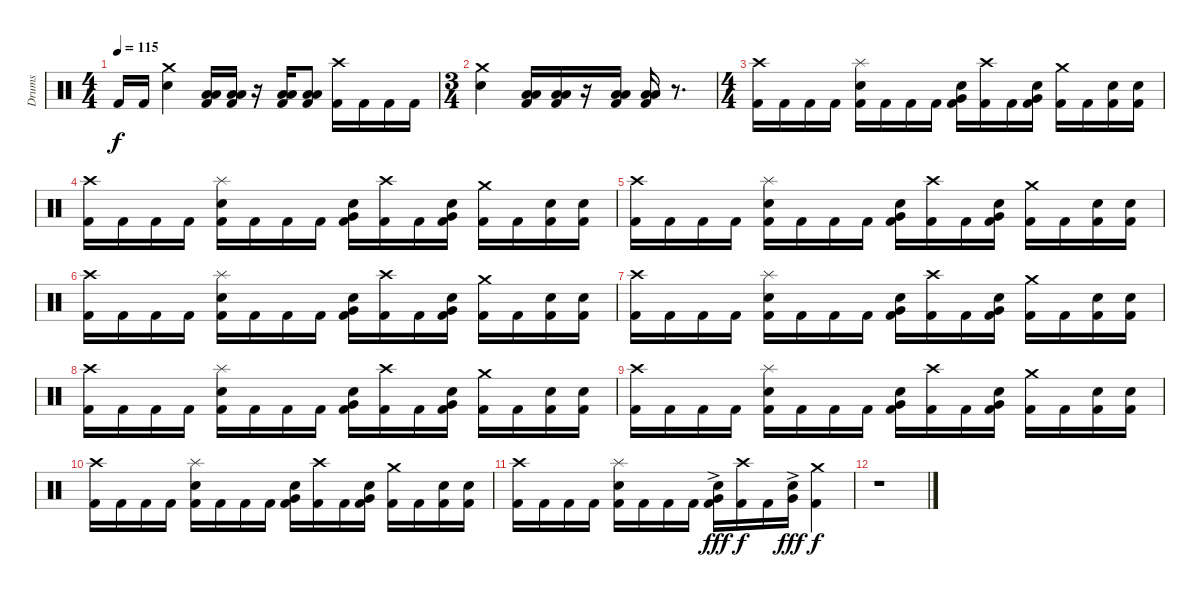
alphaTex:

\track ("Drums" "Drums") {instrument percussion}
\staff {score}
\articulation defaults
\ts (4 4)
\tempo 115
\clef neutral
\ks c "Kick (hit) 2".16{dy f} "Kick (hit) 2".16
("Crash medium (hit)" "Snare (hit) 2").4 ("Low Tom (hit)" "Low Floor Tom (hit)" "Kick (hit) 2").16 ("Low Tom (hit)" "Low Floor Tom (hit)" "Kick (hit) 2").16 r.16 ("Low Tom (hit)" "Low Floor Tom (hit)" "Kick (hit) 2").16 ("Low Tom (hit)" "Low Floor Tom (hit)" "Kick (hit) 2").8 ("Crash high (hit)" "Kick (hit) 2").16 "Kick (hit) 2".16 "Kick (hit) 2".16 "Kick (hit) 2".16 |
\ts (3 4)
("Crash medium (hit)" "Snare (hit) 2").4 ("Low Tom (hit)" "Low Floor Tom (hit)" "Kick (hit) 2").16 ("Low Tom (hit)" "Low Floor Tom (hit)" "Kick (hit) 2").16 r.16 ("Low Tom (hit)" "Low Floor Tom (hit)" "Kick (hit) 2").16 ("Low Tom (hit)" "Low Floor Tom (hit)" "Kick (hit) 2").16 r.8{d} |
\ts (4 4)
("Crash high (hit)" "Kick (hit) 2").16 "Kick (hit) 2".16 "Kick (hit) 2".16 "Kick (hit) 2".16 ("Splash (hit)" "Snare (hit) 2" "Kick (hit) 2").16 "Kick (hit) 2".16 "Kick (hit) 2".16 "Kick (hit) 2".16 ("Very Low Tom (hit)" "Snare (hit) 2" "Kick (hit) 2").16 ("Crash high (hit)" "Kick (hit) 2").16 "Kick (hit) 2".16 ("Very Low Tom (hit)" "Snare (hit) 2" "Kick (hit) 2").16 ("Crash medium (hit)" "Kick (hit) 2").16 "Kick (hit) 2".16 ("Snare (hit) 2" "Kick (hit) 2").16 ("Snare (hit) 2" "Kick (hit) 2").16 |
("Crash high (hit)" "Kick (hit) 2").16 "Kick (hit) 2".16 "Kick (hit) 2".16 "Kick (hit) 2".16 ("Splash (hit)" "Snare (hit) 2" "Kick (hit) 2").16 "Kick (hit) 2".16 "Kick (hit) 2".16 "Kick (hit) 2".16 ("Very Low Tom (hit)" "Snare (hit) 2" "Kick (hit) 2").16 ("Crash high (hit)" "Kick (hit) 2").16 "Kick (hit) 2".16 ("Very Low Tom (hit)" "Snare (hit) 2" "Kick (hit) 2").16 ("Crash medium (hit)" "Kick (hit) 2").16 "Kick (hit) 2".16 ("Snare (hit) 2" "Kick (hit) 2").16 ("Snare (hit) 2" "Kick (hit) 2").16 |
("Crash high (hit)" "Kick (hit) 2").16 "Kick (hit) 2".16 "Kick (hit) 2".16 "Kick (hit) 2".16 ("Splash (hit)" "Snare (hit) 2" "Kick (hit) 2").16 "Kick (hit) 2".16 "Kick (hit) 2".16 "Kick (hit) 2".16 ("Very Low Tom (hit)" "Snare (hit) 2" "Kick (hit) 2").16 ("Crash high (hit)" "Kick (hit) 2").16 "Kick (hit) 2".16 ("Very Low Tom (hit)" "Snare (hit) 2" "Kick (hit) 2").16 ("Crash medium (hit)" "Kick (hit) 2").16 "Kick (hit) 2".16 ("Snare (hit) 2" "Kick (hit) 2").16 ("Snare (hit) 2" "Kick (hit) 2").16 |
("Crash high (hit)" "Kick (hit) 2").16 "Kick (hit) 2".16 "Kick (hit) 2".16 "Kick (hit) 2".16 ("Splash (hit)" "Snare (hit) 2" "Kick (hit) 2").16 "Kick (hit) 2".16 "Kick (hit) 2".16 "Kick (hit) 2".16 ("Very Low Tom (hit)" "Snare (hit) 2" "Kick (hit) 2").16 ("Crash high (hit)" "Kick (hit) 2").16 "Kick (hit) 2".16 ("Very Low Tom (hit)" "Snare (hit) 2" "Kick (hit) 2").16 ("Crash medium (hit)" "Kick (hit) 2").16 "Kick (hit) 2".16 ("Snare (hit) 2" "Kick (hit) 2").16 ("Snare (hit) 2" "Kick (hit) 2").16 |
("Crash high (hit)" "Kick (hit) 2").16 "Kick (hit) 2".16 "Kick (hit) 2".16 "Kick (hit) 2".16 ("Splash (hit)" "Snare (hit) 2" "Kick (hit) 2").16 "Kick (hit) 2".16 "Kick (hit) 2".16 "Kick (hit) 2".16 ("Very Low Tom (hit)" "Snare (hit) 2" "Kick (hit) 2").16 ("Crash high (hit)" "Kick (hit) 2").16 "Kick (hit) 2".16 ("Very Low Tom (hit)" "Snare (hit) 2" "Kick (hit) 2").16 ("Crash medium (hit)" "Kick (hit) 2").16 "Kick (hit) 2".16 ("Snare (hit) 2" "Kick (hit) 2").16 ("Snare (hit) 2" "Kick (hit) 2").16 |
("Crash high (hit)" "Kick (hit) 2").16 "Kick (hit) 2".16 "Kick (hit) 2".16 "Kick (hit) 2".16 ("Splash (hit)" "Snare (hit) 2" "Kick (hit) 2").16 "Kick (hit) 2".16 "Kick (hit) 2".16 "Kick (hit) 2".16 ("Very Low Tom (hit)" "Snare (hit) 2" "Kick (hit) 2").16 ("Crash high (hit)" "Kick (hit) 2").16 "Kick (hit) 2".16 ("Very Low Tom (hit)" "Snare (hit) 2" "Kick (hit) 2").16 ("Crash medium (hit)" "Kick (hit) 2").16 "Kick (hit) 2".16 ("Snare (hit) 2" "Kick (hit) 2").16 ("Snare (hit) 2" "Kick (hit) 2").16 |
("Crash high (hit)" "Kick (hit) 2").16 "Kick (hit) 2".16 "Kick (hit) 2".16 "Kick (hit) 2".16 ("Splash (hit)" "Snare (hit) 2" "Kick (hit) 2").16 "Kick (hit) 2".16 "Kick (hit) 2".16 "Kick (hit) 2".16 ("Very Low Tom (hit)" "Snare (hit) 2" "Kick (hit) 2").16 ("Crash high (hit)" "Kick (hit) 2").16 "Kick (hit) 2".16 ("Very Low Tom (hit)" "Snare (hit) 2" "Kick (hit) 2").16 ("Crash medium (hit)" "Kick (hit) 2").16 "Kick (hit) 2".16 ("Snare (hit) 2" "Kick (hit) 2").16 ("Snare (hit) 2" "Kick (hit) 2").16 |
("Crash high (hit)" "Kick (hit) 2").16 "Kick (hit) 2".16 "Kick (hit) 2".16 "Kick (hit) 2".16 ("Splash (hit)" "Snare (hit) 2" "Kick (hit) 2").16 "Kick (hit) 2".16 "Kick (hit) 2".16 "Kick (hit) 2".16 ("Very Low Tom (hit)" "Snare (hit) 2" "Kick (hit) 2").16 ("Crash high (hit)" "Kick (hit) 2").16 "Kick (hit) 2".16 ("Very Low Tom (hit)" "Snare (hit) 2" "Kick (hit) 2").16 ("Crash medium (hit)" "Kick (hit) 2").16 "Kick (hit) 2".16 ("Snare (hit) 2" "Kick (hit) 2").16 ("Snare (hit) 2" "Kick (hit) 2").16 |
("Crash high (hit)" "Kick (hit) 2").16 "Kick (hit) 2".16 "Kick (hit) 2".16 "Kick (hit) 2".16 ("Splash (hit)" "Snare (hit) 2" "Kick (hit) 2").16 "Kick (hit) 2".16 "Kick (hit) 2".16 "Kick (hit) 2".16 ("Very Low Tom (hit)"{ac} "Snare (hit) 2"{ac} "Kick (hit) 2").16{dy fff} ("Crash high (hit)" "Kick (hit) 2").16{dy f} "Kick (hit) 2".16 ("Very Low Tom (hit)"{ac} "Snare (hit) 2"{ac}).16{dy fff} ("Crash medium (hit)" "Kick (hit) 2").4{dy f} |
r.1
